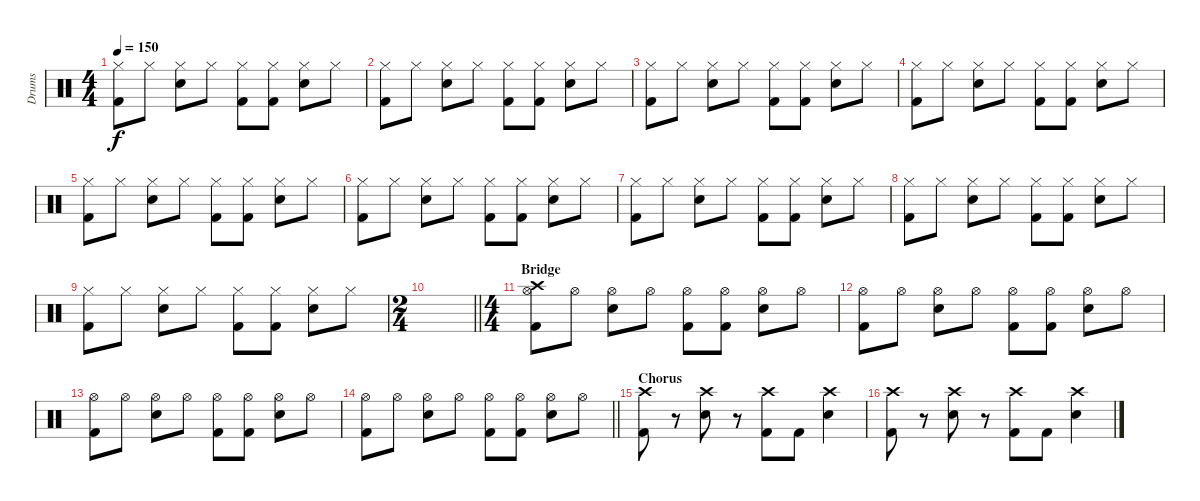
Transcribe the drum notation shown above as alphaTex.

\track ("Drums" "Drums") {instrument percussion}
\staff {score}
\articulation defaults
\ts (4 4)
\tempo 150
\clef neutral
\ks c
("Hi-Hat (closed)" "Kick (hit) 2").8{dy f} "Hi-Hat (closed)".8 ("Hi-Hat (closed)" "Snare (hit) 2").8 "Hi-Hat (closed)".8 ("Hi-Hat (closed)" "Kick (hit) 2").8 ("Hi-Hat (closed)" "Kick (hit) 2").8 ("Hi-Hat (closed)" "Snare (hit) 2").8 "Hi-Hat (closed)".8 |
("Hi-Hat (closed)" "Kick (hit) 2").8 "Hi-Hat (closed)".8 ("Hi-Hat (closed)" "Snare (hit) 2").8 "Hi-Hat (closed)".8 ("Hi-Hat (closed)" "Kick (hit) 2").8 ("Hi-Hat (closed)" "Kick (hit) 2").8 ("Hi-Hat (closed)" "Snare (hit) 2").8 "Hi-Hat (closed)".8 |
("Hi-Hat (closed)" "Kick (hit) 2").8 "Hi-Hat (closed)".8 ("Hi-Hat (closed)" "Snare (hit) 2").8 "Hi-Hat (closed)".8 ("Hi-Hat (closed)" "Kick (hit) 2").8 ("Hi-Hat (closed)" "Kick (hit) 2").8 ("Hi-Hat (closed)" "Snare (hit) 2").8 "Hi-Hat (closed)".8 |
("Hi-Hat (closed)" "Kick (hit) 2").8 "Hi-Hat (closed)".8 ("Hi-Hat (closed)" "Snare (hit) 2").8 "Hi-Hat (closed)".8 ("Hi-Hat (closed)" "Kick (hit) 2").8 ("Hi-Hat (closed)" "Kick (hit) 2").8 ("Hi-Hat (closed)" "Snare (hit) 2").8 "Hi-Hat (closed)".8 |
("Hi-Hat (closed)" "Kick (hit) 2").8 "Hi-Hat (closed)".8 ("Hi-Hat (closed)" "Snare (hit) 2").8 "Hi-Hat (closed)".8 ("Hi-Hat (closed)" "Kick (hit) 2").8 ("Hi-Hat (closed)" "Kick (hit) 2").8 ("Hi-Hat (closed)" "Snare (hit) 2").8 "Hi-Hat (closed)".8 |
("Hi-Hat (closed)" "Kick (hit) 2").8 "Hi-Hat (closed)".8 ("Hi-Hat (closed)" "Snare (hit) 2").8 "Hi-Hat (closed)".8 ("Hi-Hat (closed)" "Kick (hit) 2").8 ("Hi-Hat (closed)" "Kick (hit) 2").8 ("Hi-Hat (closed)" "Snare (hit) 2").8 "Hi-Hat (closed)".8 |
("Hi-Hat (closed)" "Kick (hit) 2").8 "Hi-Hat (closed)".8 ("Hi-Hat (closed)" "Snare (hit) 2").8 "Hi-Hat (closed)".8 ("Hi-Hat (closed)" "Kick (hit) 2").8 ("Hi-Hat (closed)" "Kick (hit) 2").8 ("Hi-Hat (closed)" "Snare (hit) 2").8 "Hi-Hat (closed)".8 |
("Hi-Hat (closed)" "Kick (hit) 2").8 "Hi-Hat (closed)".8 ("Hi-Hat (closed)" "Snare (hit) 2").8 "Hi-Hat (closed)".8 ("Hi-Hat (closed)" "Kick (hit) 2").8 ("Hi-Hat (closed)" "Kick (hit) 2").8 ("Hi-Hat (closed)" "Snare (hit) 2").8 "Hi-Hat (closed)".8 |
("Hi-Hat (closed)" "Kick (hit) 2").8 "Hi-Hat (closed)".8 ("Hi-Hat (closed)" "Snare (hit) 2").8 "Hi-Hat (closed)".8 ("Hi-Hat (closed)" "Kick (hit) 2").8 ("Hi-Hat (closed)" "Kick (hit) 2").8 ("Hi-Hat (closed)" "Snare (hit) 2").8 "Hi-Hat (closed)".8 |
\ts (2 4)
\barLineRight lightlight
|
\ts (4 4)
\section ("" "Bridge")
("Crash high (hit)" "Hi-Hat (open)" "Kick (hit) 2").8 "Hi-Hat (open)".8 ("Hi-Hat (open)" "Snare (hit) 2").8 "Hi-Hat (open)".8 ("Hi-Hat (open)" "Kick (hit) 2").8 ("Hi-Hat (open)" "Kick (hit) 2").8 ("Hi-Hat (open)" "Snare (hit) 2").8 "Hi-Hat (open)".8 |
("Hi-Hat (open)" "Kick (hit) 2").8 "Hi-Hat (open)".8 ("Hi-Hat (open)" "Snare (hit) 2").8 "Hi-Hat (open)".8 ("Hi-Hat (open)" "Kick (hit) 2").8 ("Hi-Hat (open)" "Kick (hit) 2").8 ("Hi-Hat (open)" "Snare (hit) 2").8 "Hi-Hat (open)".8 |
("Hi-Hat (open)" "Kick (hit) 2").8 "Hi-Hat (open)".8 ("Hi-Hat (open)" "Snare (hit) 2").8 "Hi-Hat (open)".8 ("Hi-Hat (open)" "Kick (hit) 2").8 ("Hi-Hat (open)" "Kick (hit) 2").8 ("Hi-Hat (open)" "Snare (hit) 2").8 "Hi-Hat (open)".8 |
\barLineRight lightlight
("Hi-Hat (open)" "Kick (hit) 2").8 "Hi-Hat (open)".8 ("Hi-Hat (open)" "Snare (hit) 2").8 "Hi-Hat (open)".8 ("Hi-Hat (open)" "Kick (hit) 2").8 ("Hi-Hat (open)" "Kick (hit) 2").8 ("Hi-Hat (open)" "Snare (hit) 2").8 "Hi-Hat (open)".8 |
\section ("" "Chorus")
("Crash high (hit)" "Kick (hit) 2").8 r.8 ("Crash high (hit)" "Snare (hit) 2").8 r.8 ("Crash high (hit)" "Kick (hit) 2").8 "Kick (hit) 2".8 ("Crash high (hit)" "Snare (hit) 2").4 |
("Crash high (hit)" "Kick (hit) 2").8 r.8 ("Crash high (hit)" "Snare (hit) 2").8 r.8 ("Crash high (hit)" "Kick (hit) 2").8 "Kick (hit) 2".8 ("Crash high (hit)" "Snare (hit) 2").4
